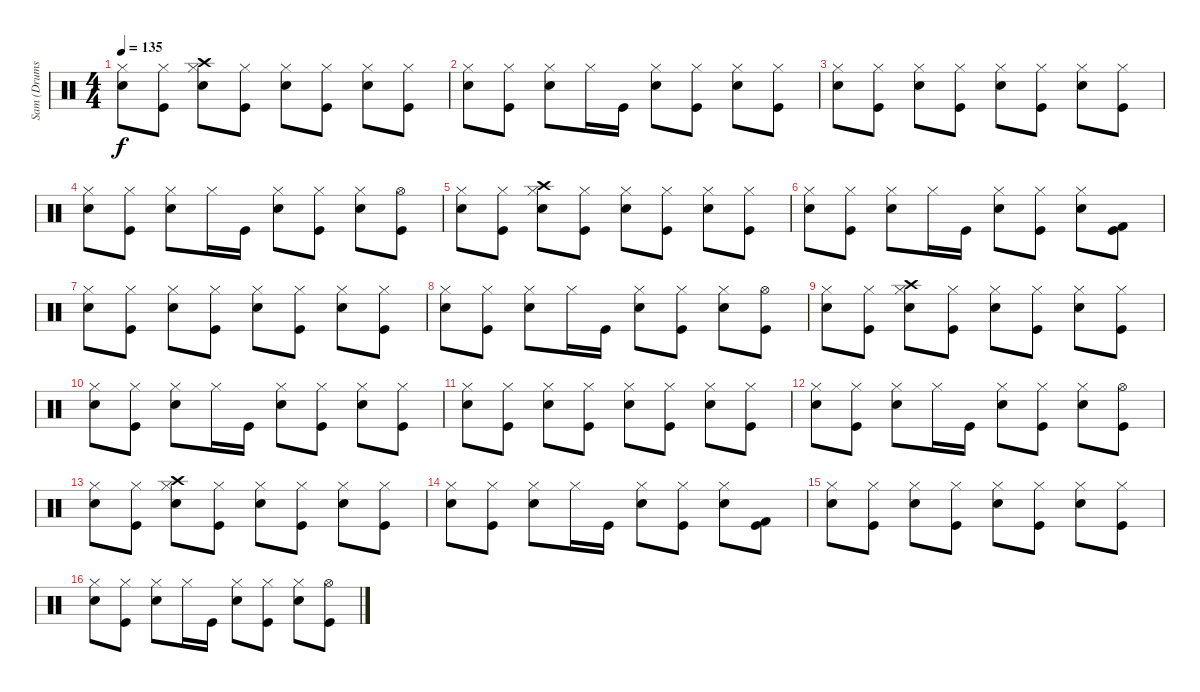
\track ("Sam (Drums)" "Sam (Drums") {instrument percussion}
\staff {score}
\articulation defaults
\ts (4 4)
\tempo 135
\clef neutral
\ks c
("Hi-Hat (closed)" "Snare (hit) 2").8{dy f} ("Hi-Hat (closed)" "Kick (hit)").8 ("Crash high (hit)" "Hi-Hat (closed)" "Snare (hit) 2").8 ("Hi-Hat (closed)" "Kick (hit)").8 ("Hi-Hat (closed)" "Snare (hit) 2").8 ("Hi-Hat (closed)" "Kick (hit)").8 ("Hi-Hat (closed)" "Snare (hit) 2").8 ("Hi-Hat (closed)" "Kick (hit)").8 |
("Hi-Hat (closed)" "Snare (hit) 2").8 ("Hi-Hat (closed)" "Kick (hit)").8 ("Hi-Hat (closed)" "Snare (hit) 2").8 "Hi-Hat (closed)".16 "Kick (hit)".16 ("Hi-Hat (closed)" "Snare (hit) 2").8 ("Hi-Hat (closed)" "Kick (hit)").8 ("Hi-Hat (closed)" "Snare (hit) 2").8 ("Hi-Hat (closed)" "Kick (hit)").8 |
("Hi-Hat (closed)" "Snare (hit) 2").8 ("Hi-Hat (closed)" "Kick (hit)").8 ("Hi-Hat (closed)" "Snare (hit) 2").8 ("Hi-Hat (closed)" "Kick (hit)").8 ("Hi-Hat (closed)" "Snare (hit) 2").8 ("Hi-Hat (closed)" "Kick (hit)").8 ("Hi-Hat (closed)" "Snare (hit) 2").8 ("Hi-Hat (closed)" "Kick (hit)").8 |
("Hi-Hat (closed)" "Snare (hit) 2").8 ("Hi-Hat (closed)" "Kick (hit)").8 ("Hi-Hat (closed)" "Snare (hit) 2").8 "Hi-Hat (closed)".16 "Kick (hit)".16 ("Hi-Hat (closed)" "Snare (hit) 2").8 ("Hi-Hat (closed)" "Kick (hit)").8 ("Hi-Hat (closed)" "Snare (hit) 2").8 ("Hi-Hat (open)" "Kick (hit)").8 |
("Hi-Hat (closed)" "Snare (hit) 2").8 ("Hi-Hat (closed)" "Kick (hit)").8 ("Crash high (hit)" "Hi-Hat (closed)" "Snare (hit) 2").8 ("Hi-Hat (closed)" "Kick (hit)").8 ("Hi-Hat (closed)" "Snare (hit) 2").8 ("Hi-Hat (closed)" "Kick (hit)").8 ("Hi-Hat (closed)" "Snare (hit) 2").8 ("Hi-Hat (closed)" "Kick (hit)").8 |
("Hi-Hat (closed)" "Snare (hit) 2").8 ("Hi-Hat (closed)" "Kick (hit)").8 ("Hi-Hat (closed)" "Snare (hit) 2").8 "Hi-Hat (closed)".16 "Kick (hit)".16 ("Hi-Hat (closed)" "Snare (hit) 2").8 ("Hi-Hat (closed)" "Kick (hit)").8 ("Hi-Hat (closed)" "Snare (hit) 2").8 ("Kick (hit) 2" "Kick (hit)").8 |
("Hi-Hat (closed)" "Snare (hit) 2").8 ("Hi-Hat (closed)" "Kick (hit)").8 ("Hi-Hat (closed)" "Snare (hit) 2").8 ("Hi-Hat (closed)" "Kick (hit)").8 ("Hi-Hat (closed)" "Snare (hit) 2").8 ("Hi-Hat (closed)" "Kick (hit)").8 ("Hi-Hat (closed)" "Snare (hit) 2").8 ("Hi-Hat (closed)" "Kick (hit)").8 |
("Hi-Hat (closed)" "Snare (hit) 2").8 ("Hi-Hat (closed)" "Kick (hit)").8 ("Hi-Hat (closed)" "Snare (hit) 2").8 "Hi-Hat (closed)".16 "Kick (hit)".16 ("Hi-Hat (closed)" "Snare (hit) 2").8 ("Hi-Hat (closed)" "Kick (hit)").8 ("Hi-Hat (closed)" "Snare (hit) 2").8 ("Hi-Hat (open)" "Kick (hit)").8 |
("Hi-Hat (closed)" "Snare (hit) 2").8{volume 8} ("Hi-Hat (closed)" "Kick (hit)").8 ("Crash high (hit)" "Hi-Hat (closed)" "Snare (hit) 2").8 ("Hi-Hat (closed)" "Kick (hit)").8 ("Hi-Hat (closed)" "Snare (hit) 2").8 ("Hi-Hat (closed)" "Kick (hit)").8 ("Hi-Hat (closed)" "Snare (hit) 2").8 ("Hi-Hat (closed)" "Kick (hit)").8 |
("Hi-Hat (closed)" "Snare (hit) 2").8 ("Hi-Hat (closed)" "Kick (hit)").8 ("Hi-Hat (closed)" "Snare (hit) 2").8 "Hi-Hat (closed)".16 "Kick (hit)".16 ("Hi-Hat (closed)" "Snare (hit) 2").8 ("Hi-Hat (closed)" "Kick (hit)").8 ("Hi-Hat (closed)" "Snare (hit) 2").8 ("Hi-Hat (closed)" "Kick (hit)").8 |
("Hi-Hat (closed)" "Snare (hit) 2").8 ("Hi-Hat (closed)" "Kick (hit)").8 ("Hi-Hat (closed)" "Snare (hit) 2").8 ("Hi-Hat (closed)" "Kick (hit)").8 ("Hi-Hat (closed)" "Snare (hit) 2").8 ("Hi-Hat (closed)" "Kick (hit)").8 ("Hi-Hat (closed)" "Snare (hit) 2").8 ("Hi-Hat (closed)" "Kick (hit)").8 |
("Hi-Hat (closed)" "Snare (hit) 2").8 ("Hi-Hat (closed)" "Kick (hit)").8 ("Hi-Hat (closed)" "Snare (hit) 2").8 "Hi-Hat (closed)".16 "Kick (hit)".16 ("Hi-Hat (closed)" "Snare (hit) 2").8 ("Hi-Hat (closed)" "Kick (hit)").8 ("Hi-Hat (closed)" "Snare (hit) 2").8 ("Hi-Hat (open)" "Kick (hit)").8 |
("Hi-Hat (closed)" "Snare (hit) 2").8{volume 4} ("Hi-Hat (closed)" "Kick (hit)").8 ("Crash high (hit)" "Hi-Hat (closed)" "Snare (hit) 2").8 ("Hi-Hat (closed)" "Kick (hit)").8 ("Hi-Hat (closed)" "Snare (hit) 2").8 ("Hi-Hat (closed)" "Kick (hit)").8 ("Hi-Hat (closed)" "Snare (hit) 2").8 ("Hi-Hat (closed)" "Kick (hit)").8 |
("Hi-Hat (closed)" "Snare (hit) 2").8 ("Hi-Hat (closed)" "Kick (hit)").8 ("Hi-Hat (closed)" "Snare (hit) 2").8 "Hi-Hat (closed)".16 "Kick (hit)".16 ("Hi-Hat (closed)" "Snare (hit) 2").8 ("Hi-Hat (closed)" "Kick (hit)").8 ("Hi-Hat (closed)" "Snare (hit) 2").8 ("Kick (hit) 2" "Kick (hit)").8 |
("Hi-Hat (closed)" "Snare (hit) 2").8 ("Hi-Hat (closed)" "Kick (hit)").8 ("Hi-Hat (closed)" "Snare (hit) 2").8 ("Hi-Hat (closed)" "Kick (hit)").8 ("Hi-Hat (closed)" "Snare (hit) 2").8 ("Hi-Hat (closed)" "Kick (hit)").8 ("Hi-Hat (closed)" "Snare (hit) 2").8 ("Hi-Hat (closed)" "Kick (hit)").8 |
("Hi-Hat (closed)" "Snare (hit) 2").8 ("Hi-Hat (closed)" "Kick (hit)").8 ("Hi-Hat (closed)" "Snare (hit) 2").8 "Hi-Hat (closed)".16 "Kick (hit)".16 ("Hi-Hat (closed)" "Snare (hit) 2").8 ("Hi-Hat (closed)" "Kick (hit)").8 ("Hi-Hat (closed)" "Snare (hit) 2").8 ("Hi-Hat (open)" "Kick (hit)").8
